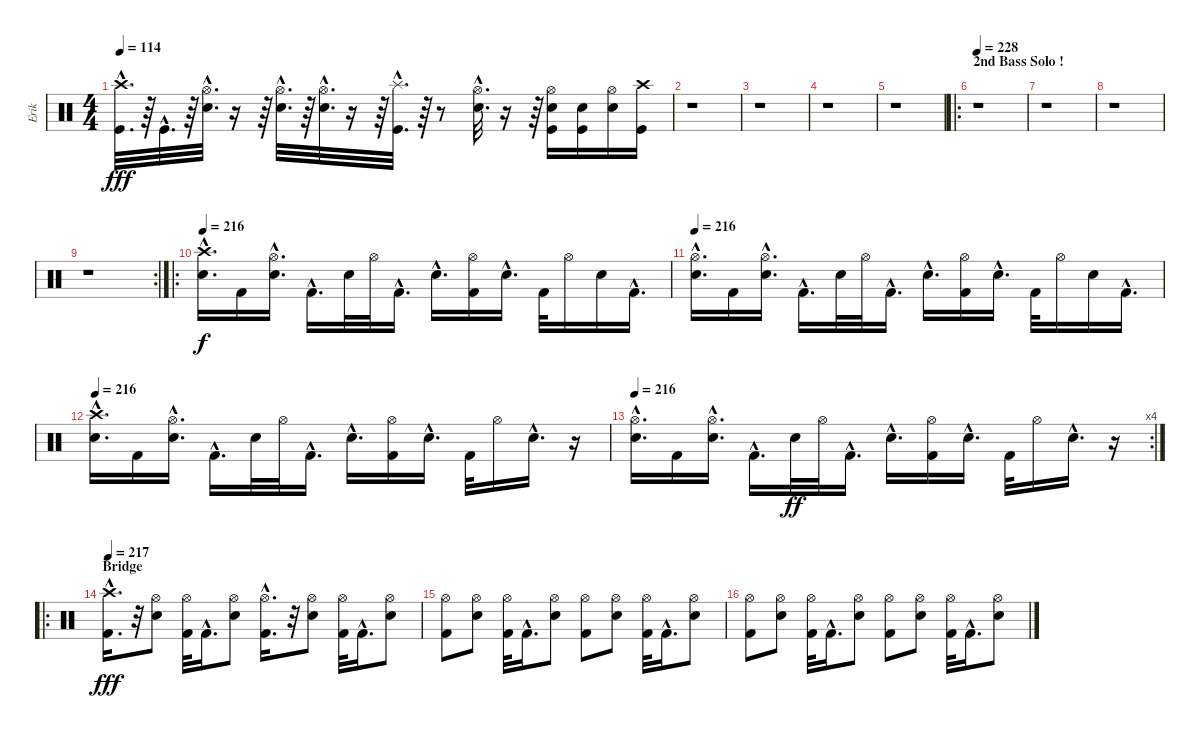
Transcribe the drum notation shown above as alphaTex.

\track ("Erik" "Erik") {instrument percussion}
\staff {score}
\articulation defaults
\ts (4 4)
\tempo 114
\clef neutral
\ks c
("Kick (hit)"{hac} "Crash high (hit)"{hac}).32{d dy fff} r.64 "Kick (hit)"{hac}.32{d} r.64 ("Electric Snare (hit)"{hac} "Hi-Hat (open)"{hac}).32{d} r.16 r.64 ("Electric Snare (hit)"{hac} "Hi-Hat (open)"{hac}).32{d} r.64 ("Hi-Hat (open)"{hac} "Electric Snare (hit)"{hac}).32{d} r.16 r.64 ("Kick (hit)"{hac} "Splash (hit)"{hac}).32{d} r.64 r.8 ("Electric Snare (hit)"{hac} "Hi-Hat (open)"{hac}).32{d} r.16 r.64 ("Kick (hit)" "Hi-Hat (open)" "Electric Snare (hit)").16 ("Kick (hit)" "Electric Snare (hit)").16 ("Electric Snare (hit)" "Hi-Hat (open)").16 ("Crash high (hit)" "Kick (hit)").16 |
r.1 |
r.1 |
r.1 |
r.1 |
\ro
\section ("" "2nd Bass Solo !")
\tempo 228
r.1 |
r.1 |
r.1 |
\rc 2
r.1 |
\ro
\tempo 228
\tempo 216
("Crash high (hit)"{hac} "Electric Snare (hit)"{hac}).16{d dy f} "Kick (hit) 2".16 ("Hi-Hat (open)"{hac} "Electric Snare (hit)"{hac}).16{d} "Kick (hit) 2"{hac}.16{d} "Electric Snare (hit)".32 "Hi-Hat (open)".32 "Kick (hit) 2"{hac}.16{d} "Electric Snare (hit)"{hac}.16{d} ("Kick (hit) 2" "Hi-Hat (open)").16 "Electric Snare (hit)"{hac}.16{d} "Kick (hit) 2".32 "Hi-Hat (open)".16 "Electric Snare (hit)".16 "Kick (hit) 2"{hac}.16{d} |
\tempo 216
("Hi-Hat (open)"{hac} "Electric Snare (hit)"{hac}).16{d} "Kick (hit) 2".16 ("Hi-Hat (open)"{hac} "Electric Snare (hit)"{hac}).16{d} "Kick (hit) 2"{hac}.16{d} "Electric Snare (hit)".32 "Hi-Hat (open)".32 "Kick (hit) 2"{hac}.16{d} "Electric Snare (hit)"{hac}.16{d} ("Kick (hit) 2" "Hi-Hat (open)").16 "Electric Snare (hit)"{hac}.16{d} "Kick (hit) 2".32 "Hi-Hat (open)".16 "Electric Snare (hit)".16 "Kick (hit) 2"{hac}.16{d} |
\tempo 216
("Crash high (hit)"{hac} "Electric Snare (hit)"{hac}).16{d} "Kick (hit) 2".16 ("Hi-Hat (open)"{hac} "Electric Snare (hit)"{hac}).16{d} "Kick (hit) 2"{hac}.16{d} "Electric Snare (hit)".32 "Hi-Hat (open)".32 "Kick (hit) 2"{hac}.16{d} "Electric Snare (hit)"{hac}.16{d} ("Kick (hit) 2" "Hi-Hat (open)").16 "Electric Snare (hit)"{hac}.16{d} "Kick (hit) 2".32 "Hi-Hat (open)".16 "Electric Snare (hit)"{hac}.16{d} r.16 |
\rc 4
\tempo 216
("Hi-Hat (open)"{hac} "Electric Snare (hit)"{hac}).16{d} "Kick (hit) 2".16 ("Hi-Hat (open)"{hac} "Electric Snare (hit)"{hac}).16{d} "Kick (hit) 2"{hac}.16{d} "Electric Snare (hit)".32{dy ff} "Hi-Hat (open)".32 "Kick (hit) 2"{hac}.16{d} "Electric Snare (hit)"{hac}.16{d} ("Kick (hit) 2" "Hi-Hat (open)").16 "Electric Snare (hit)"{hac}.16{d} "Kick (hit) 2".32 "Hi-Hat (open)".16 "Electric Snare (hit)"{hac}.16{d} r.16 |
\ro
\section ("" "Bridge")
\tempo 217
("Kick (hit) 2"{hac} "Crash high (hit)"{hac}).16{d dy fff} r.32 ("Electric Snare (hit)" "Hi-Hat (open)").8 ("Kick (hit) 2" "Hi-Hat (open)").32 "Kick (hit) 2"{hac}.16{d} ("Hi-Hat (open)" "Electric Snare (hit)").8 ("Kick (hit) 2"{hac} "Hi-Hat (open)"{hac}).16{d} r.32 ("Hi-Hat (open)" "Electric Snare (hit)").8 ("Kick (hit) 2" "Hi-Hat (open)").32 "Kick (hit) 2"{hac}.16{d} ("Electric Snare (hit)" "Hi-Hat (open)").8 |
("Kick (hit) 2" "Hi-Hat (open)").8 ("Hi-Hat (open)" "Electric Snare (hit)").8 ("Kick (hit) 2" "Hi-Hat (open)").32 "Kick (hit) 2"{hac}.16{d} ("Hi-Hat (open)" "Electric Snare (hit)").8 ("Kick (hit) 2" "Hi-Hat (open)").8 ("Hi-Hat (open)" "Electric Snare (hit)").8 ("Hi-Hat (open)" "Kick (hit) 2").32 "Kick (hit) 2"{hac}.16{d} ("Hi-Hat (open)" "Electric Snare (hit)").8 |
("Kick (hit) 2" "Hi-Hat (open)").8 ("Hi-Hat (open)" "Electric Snare (hit)").8 ("Kick (hit) 2" "Hi-Hat (open)").32 "Kick (hit) 2"{hac}.16{d} ("Hi-Hat (open)" "Electric Snare (hit)").8 ("Kick (hit) 2" "Hi-Hat (open)").8 ("Hi-Hat (open)" "Electric Snare (hit)").8 ("Hi-Hat (open)" "Kick (hit) 2").32 "Kick (hit) 2"{hac}.16{d} ("Hi-Hat (open)" "Electric Snare (hit)").8
